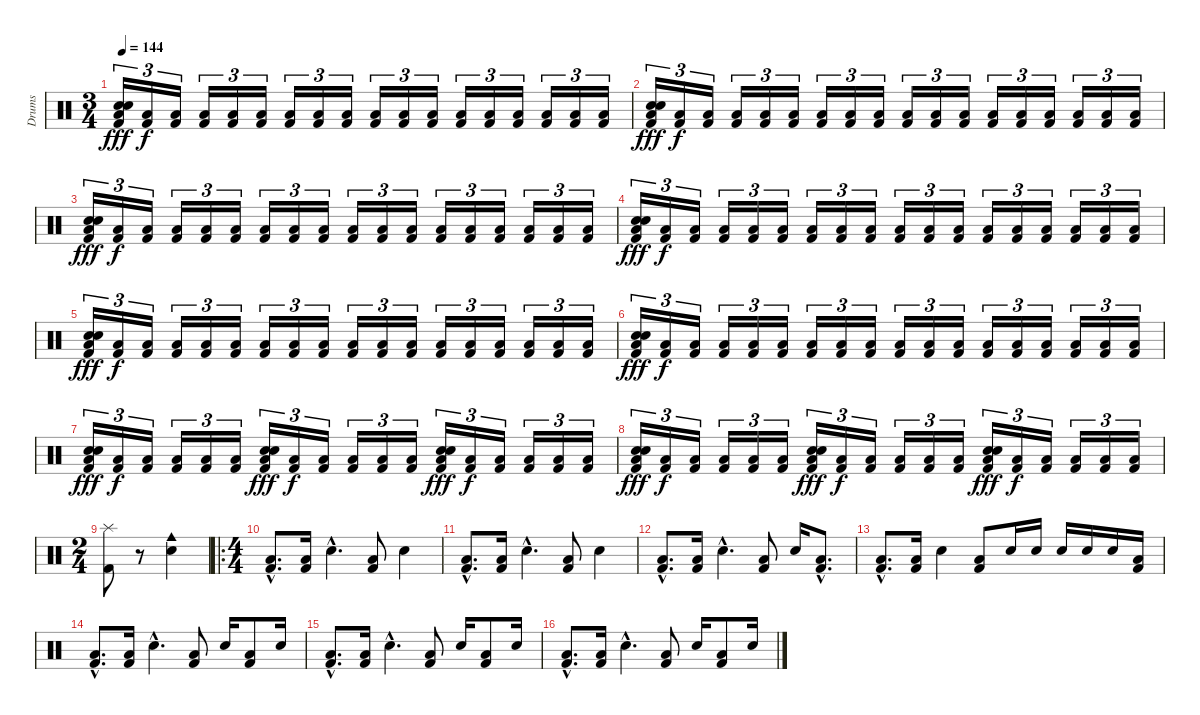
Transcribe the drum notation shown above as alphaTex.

\track ("Drums" "Drums") {instrument percussion}
\staff {score}
\articulation defaults
\ts (3 4)
\tempo 144
\clef neutral
\ks c
("Electric Snare (hit)" "Electric Snare (hit)" "Low Floor Tom (hit)" "Kick (hit) 2").16{tu (3 2) dy fff} ("Low Floor Tom (hit)" "Kick (hit) 2").16{tu (3 2) dy f} ("Low Floor Tom (hit)" "Kick (hit) 2").16{tu (3 2)} ("Low Floor Tom (hit)" "Kick (hit) 2").16{tu (3 2)} ("Low Floor Tom (hit)" "Kick (hit) 2").16{tu (3 2)} ("Low Floor Tom (hit)" "Kick (hit) 2").16{tu (3 2)} ("Low Floor Tom (hit)" "Kick (hit) 2").16{tu (3 2)} ("Low Floor Tom (hit)" "Kick (hit) 2").16{tu (3 2)} ("Low Floor Tom (hit)" "Kick (hit) 2").16{tu (3 2)} ("Low Floor Tom (hit)" "Kick (hit) 2").16{tu (3 2)} ("Low Floor Tom (hit)" "Kick (hit) 2").16{tu (3 2)} ("Low Floor Tom (hit)" "Kick (hit) 2").16{tu (3 2)} ("Low Floor Tom (hit)" "Kick (hit) 2").16{tu (3 2)} ("Low Floor Tom (hit)" "Kick (hit) 2").16{tu (3 2)} ("Low Floor Tom (hit)" "Kick (hit) 2").16{tu (3 2)} ("Low Floor Tom (hit)" "Kick (hit) 2").16{tu (3 2)} ("Low Floor Tom (hit)" "Kick (hit) 2").16{tu (3 2)} ("Low Floor Tom (hit)" "Kick (hit) 2").16{tu (3 2)} |
("Electric Snare (hit)" "Electric Snare (hit)" "Low Floor Tom (hit)" "Kick (hit) 2").16{tu (3 2) dy fff} ("Low Floor Tom (hit)" "Kick (hit) 2").16{tu (3 2) dy f} ("Low Floor Tom (hit)" "Kick (hit) 2").16{tu (3 2)} ("Low Floor Tom (hit)" "Kick (hit) 2").16{tu (3 2)} ("Low Floor Tom (hit)" "Kick (hit) 2").16{tu (3 2)} ("Low Floor Tom (hit)" "Kick (hit) 2").16{tu (3 2)} ("Low Floor Tom (hit)" "Kick (hit) 2").16{tu (3 2)} ("Low Floor Tom (hit)" "Kick (hit) 2").16{tu (3 2)} ("Low Floor Tom (hit)" "Kick (hit) 2").16{tu (3 2)} ("Low Floor Tom (hit)" "Kick (hit) 2").16{tu (3 2)} ("Low Floor Tom (hit)" "Kick (hit) 2").16{tu (3 2)} ("Low Floor Tom (hit)" "Kick (hit) 2").16{tu (3 2)} ("Low Floor Tom (hit)" "Kick (hit) 2").16{tu (3 2)} ("Low Floor Tom (hit)" "Kick (hit) 2").16{tu (3 2)} ("Low Floor Tom (hit)" "Kick (hit) 2").16{tu (3 2)} ("Low Floor Tom (hit)" "Kick (hit) 2").16{tu (3 2)} ("Low Floor Tom (hit)" "Kick (hit) 2").16{tu (3 2)} ("Low Floor Tom (hit)" "Kick (hit) 2").16{tu (3 2)} |
("Electric Snare (hit)" "Electric Snare (hit)" "Low Floor Tom (hit)" "Kick (hit) 2").16{tu (3 2) dy fff} ("Low Floor Tom (hit)" "Kick (hit) 2").16{tu (3 2) dy f} ("Low Floor Tom (hit)" "Kick (hit) 2").16{tu (3 2)} ("Low Floor Tom (hit)" "Kick (hit) 2").16{tu (3 2)} ("Low Floor Tom (hit)" "Kick (hit) 2").16{tu (3 2)} ("Low Floor Tom (hit)" "Kick (hit) 2").16{tu (3 2)} ("Low Floor Tom (hit)" "Kick (hit) 2").16{tu (3 2)} ("Low Floor Tom (hit)" "Kick (hit) 2").16{tu (3 2)} ("Low Floor Tom (hit)" "Kick (hit) 2").16{tu (3 2)} ("Low Floor Tom (hit)" "Kick (hit) 2").16{tu (3 2)} ("Low Floor Tom (hit)" "Kick (hit) 2").16{tu (3 2)} ("Low Floor Tom (hit)" "Kick (hit) 2").16{tu (3 2)} ("Low Floor Tom (hit)" "Kick (hit) 2").16{tu (3 2)} ("Low Floor Tom (hit)" "Kick (hit) 2").16{tu (3 2)} ("Low Floor Tom (hit)" "Kick (hit) 2").16{tu (3 2)} ("Low Floor Tom (hit)" "Kick (hit) 2").16{tu (3 2)} ("Low Floor Tom (hit)" "Kick (hit) 2").16{tu (3 2)} ("Low Floor Tom (hit)" "Kick (hit) 2").16{tu (3 2)} |
("Electric Snare (hit)" "Electric Snare (hit)" "Low Floor Tom (hit)" "Kick (hit) 2").16{tu (3 2) dy fff} ("Low Floor Tom (hit)" "Kick (hit) 2").16{tu (3 2) dy f} ("Low Floor Tom (hit)" "Kick (hit) 2").16{tu (3 2)} ("Low Floor Tom (hit)" "Kick (hit) 2").16{tu (3 2)} ("Low Floor Tom (hit)" "Kick (hit) 2").16{tu (3 2)} ("Low Floor Tom (hit)" "Kick (hit) 2").16{tu (3 2)} ("Low Floor Tom (hit)" "Kick (hit) 2").16{tu (3 2)} ("Low Floor Tom (hit)" "Kick (hit) 2").16{tu (3 2)} ("Low Floor Tom (hit)" "Kick (hit) 2").16{tu (3 2)} ("Low Floor Tom (hit)" "Kick (hit) 2").16{tu (3 2)} ("Low Floor Tom (hit)" "Kick (hit) 2").16{tu (3 2)} ("Low Floor Tom (hit)" "Kick (hit) 2").16{tu (3 2)} ("Low Floor Tom (hit)" "Kick (hit) 2").16{tu (3 2)} ("Low Floor Tom (hit)" "Kick (hit) 2").16{tu (3 2)} ("Low Floor Tom (hit)" "Kick (hit) 2").16{tu (3 2)} ("Low Floor Tom (hit)" "Kick (hit) 2").16{tu (3 2)} ("Low Floor Tom (hit)" "Kick (hit) 2").16{tu (3 2)} ("Low Floor Tom (hit)" "Kick (hit) 2").16{tu (3 2)} |
("Electric Snare (hit)" "Electric Snare (hit)" "Low Floor Tom (hit)" "Kick (hit) 2").16{tu (3 2) dy fff} ("Low Floor Tom (hit)" "Kick (hit) 2").16{tu (3 2) dy f} ("Low Floor Tom (hit)" "Kick (hit) 2").16{tu (3 2)} ("Low Floor Tom (hit)" "Kick (hit) 2").16{tu (3 2)} ("Low Floor Tom (hit)" "Kick (hit) 2").16{tu (3 2)} ("Low Floor Tom (hit)" "Kick (hit) 2").16{tu (3 2)} ("Low Floor Tom (hit)" "Kick (hit) 2").16{tu (3 2)} ("Low Floor Tom (hit)" "Kick (hit) 2").16{tu (3 2)} ("Low Floor Tom (hit)" "Kick (hit) 2").16{tu (3 2)} ("Low Floor Tom (hit)" "Kick (hit) 2").16{tu (3 2)} ("Low Floor Tom (hit)" "Kick (hit) 2").16{tu (3 2)} ("Low Floor Tom (hit)" "Kick (hit) 2").16{tu (3 2)} ("Low Floor Tom (hit)" "Kick (hit) 2").16{tu (3 2)} ("Low Floor Tom (hit)" "Kick (hit) 2").16{tu (3 2)} ("Low Floor Tom (hit)" "Kick (hit) 2").16{tu (3 2)} ("Low Floor Tom (hit)" "Kick (hit) 2").16{tu (3 2)} ("Low Floor Tom (hit)" "Kick (hit) 2").16{tu (3 2)} ("Low Floor Tom (hit)" "Kick (hit) 2").16{tu (3 2)} |
("Electric Snare (hit)" "Electric Snare (hit)" "Low Floor Tom (hit)" "Kick (hit) 2").16{tu (3 2) dy fff} ("Low Floor Tom (hit)" "Kick (hit) 2").16{tu (3 2) dy f} ("Low Floor Tom (hit)" "Kick (hit) 2").16{tu (3 2)} ("Low Floor Tom (hit)" "Kick (hit) 2").16{tu (3 2)} ("Low Floor Tom (hit)" "Kick (hit) 2").16{tu (3 2)} ("Low Floor Tom (hit)" "Kick (hit) 2").16{tu (3 2)} ("Low Floor Tom (hit)" "Kick (hit) 2").16{tu (3 2)} ("Low Floor Tom (hit)" "Kick (hit) 2").16{tu (3 2)} ("Low Floor Tom (hit)" "Kick (hit) 2").16{tu (3 2)} ("Low Floor Tom (hit)" "Kick (hit) 2").16{tu (3 2)} ("Low Floor Tom (hit)" "Kick (hit) 2").16{tu (3 2)} ("Low Floor Tom (hit)" "Kick (hit) 2").16{tu (3 2)} ("Low Floor Tom (hit)" "Kick (hit) 2").16{tu (3 2)} ("Low Floor Tom (hit)" "Kick (hit) 2").16{tu (3 2)} ("Low Floor Tom (hit)" "Kick (hit) 2").16{tu (3 2)} ("Low Floor Tom (hit)" "Kick (hit) 2").16{tu (3 2)} ("Low Floor Tom (hit)" "Kick (hit) 2").16{tu (3 2)} ("Low Floor Tom (hit)" "Kick (hit) 2").16{tu (3 2)} |
("Electric Snare (hit)" "Electric Snare (hit)" "Low Floor Tom (hit)" "Kick (hit) 2").16{tu (3 2) dy fff} ("Low Floor Tom (hit)" "Kick (hit) 2").16{tu (3 2) dy f} ("Low Floor Tom (hit)" "Kick (hit) 2").16{tu (3 2)} ("Low Floor Tom (hit)" "Kick (hit) 2").16{tu (3 2)} ("Low Floor Tom (hit)" "Kick (hit) 2").16{tu (3 2)} ("Low Floor Tom (hit)" "Kick (hit) 2").16{tu (3 2)} ("Electric Snare (hit)" "Electric Snare (hit)" "Low Floor Tom (hit)" "Kick (hit) 2").16{tu (3 2) dy fff} ("Low Floor Tom (hit)" "Kick (hit) 2").16{tu (3 2) dy f} ("Low Floor Tom (hit)" "Kick (hit) 2").16{tu (3 2)} ("Low Floor Tom (hit)" "Kick (hit) 2").16{tu (3 2)} ("Low Floor Tom (hit)" "Kick (hit) 2").16{tu (3 2)} ("Low Floor Tom (hit)" "Kick (hit) 2").16{tu (3 2)} ("Electric Snare (hit)" "Electric Snare (hit)" "Low Floor Tom (hit)" "Kick (hit) 2").16{tu (3 2) dy fff} ("Low Floor Tom (hit)" "Kick (hit) 2").16{tu (3 2) dy f} ("Low Floor Tom (hit)" "Kick (hit) 2").16{tu (3 2)} ("Low Floor Tom (hit)" "Kick (hit) 2").16{tu (3 2)} ("Low Floor Tom (hit)" "Kick (hit) 2").16{tu (3 2)} ("Low Floor Tom (hit)" "Kick (hit) 2").16{tu (3 2)} |
("Electric Snare (hit)" "Electric Snare (hit)" "Low Floor Tom (hit)" "Kick (hit) 2").16{tu (3 2) dy fff} ("Low Floor Tom (hit)" "Kick (hit) 2").16{tu (3 2) dy f} ("Low Floor Tom (hit)" "Kick (hit) 2").16{tu (3 2)} ("Low Floor Tom (hit)" "Kick (hit) 2").16{tu (3 2)} ("Low Floor Tom (hit)" "Kick (hit) 2").16{tu (3 2)} ("Low Floor Tom (hit)" "Kick (hit) 2").16{tu (3 2)} ("Electric Snare (hit)" "Electric Snare (hit)" "Low Floor Tom (hit)" "Kick (hit) 2").16{tu (3 2) dy fff} ("Low Floor Tom (hit)" "Kick (hit) 2").16{tu (3 2) dy f} ("Low Floor Tom (hit)" "Kick (hit) 2").16{tu (3 2)} ("Low Floor Tom (hit)" "Kick (hit) 2").16{tu (3 2)} ("Low Floor Tom (hit)" "Kick (hit) 2").16{tu (3 2)} ("Low Floor Tom (hit)" "Kick (hit) 2").16{tu (3 2)} ("Electric Snare (hit)" "Electric Snare (hit)" "Low Floor Tom (hit)" "Kick (hit) 2").16{tu (3 2) dy fff} ("Low Floor Tom (hit)" "Kick (hit) 2").16{tu (3 2) dy f} ("Low Floor Tom (hit)" "Kick (hit) 2").16{tu (3 2)} ("Low Floor Tom (hit)" "Kick (hit) 2").16{tu (3 2)} ("Low Floor Tom (hit)" "Kick (hit) 2").16{tu (3 2)} ("Low Floor Tom (hit)" "Kick (hit) 2").16{tu (3 2)} |
\ts (2 4)
("Splash (hit)" "Kick (hit) 2").8 r.8 ("Cowbell medium (hit)" "Metronome (bell)").4 |
\ro
\ts (4 4)
("Low Floor Tom (hit)"{hac} "Kick (hit) 2"{hac}).8{d} ("Low Floor Tom (hit)" "Kick (hit) 2").16 "Snare (hit) 2"{hac}.4{d} ("Low Floor Tom (hit)" "Kick (hit) 2").8 "Snare (hit) 2".4 |
("Low Floor Tom (hit)"{hac} "Kick (hit) 2"{hac}).8{d} ("Low Floor Tom (hit)" "Kick (hit) 2").16 "Snare (hit) 2"{hac}.4{d} ("Low Floor Tom (hit)" "Kick (hit) 2").8 "Snare (hit) 2".4 |
("Low Floor Tom (hit)"{hac} "Kick (hit) 2"{hac}).8{d} ("Low Floor Tom (hit)" "Kick (hit) 2").16 "Snare (hit) 2"{hac}.4{d} ("Low Floor Tom (hit)" "Kick (hit) 2").8 "Snare (hit) 2".16 ("Low Floor Tom (hit)"{hac} "Kick (hit) 2"{hac}).8{d} |
("Low Floor Tom (hit)"{hac} "Kick (hit) 2"{hac}).8{d} ("Low Floor Tom (hit)" "Kick (hit) 2").16 "Snare (hit) 2".4 ("Low Floor Tom (hit)" "Kick (hit) 2").8 "Snare (hit) 2".16 "Snare (hit) 2".16 "Snare (hit) 2".16 "Snare (hit) 2".16 "Snare (hit) 2".16 ("Low Floor Tom (hit)" "Kick (hit) 2").16 |
("Low Floor Tom (hit)"{hac} "Kick (hit) 2"{hac}).8{d} ("Low Floor Tom (hit)" "Kick (hit) 2").16 "Snare (hit) 2"{hac}.4{d} ("Low Floor Tom (hit)" "Kick (hit) 2").8 "Snare (hit) 2".16 ("Low Floor Tom (hit)" "Kick (hit) 2").8 "Snare (hit) 2".16 |
("Low Floor Tom (hit)"{hac} "Kick (hit) 2"{hac}).8{d} ("Low Floor Tom (hit)" "Kick (hit) 2").16 "Snare (hit) 2"{hac}.4{d} ("Low Floor Tom (hit)" "Kick (hit) 2").8 "Snare (hit) 2".16 ("Low Floor Tom (hit)" "Kick (hit) 2").8 "Snare (hit) 2".16 |
("Low Floor Tom (hit)"{hac} "Kick (hit) 2"{hac}).8{d} ("Low Floor Tom (hit)" "Kick (hit) 2").16 "Snare (hit) 2"{hac}.4{d} ("Low Floor Tom (hit)" "Kick (hit) 2").8 "Snare (hit) 2".16 ("Low Floor Tom (hit)" "Kick (hit) 2").8 "Snare (hit) 2".16
